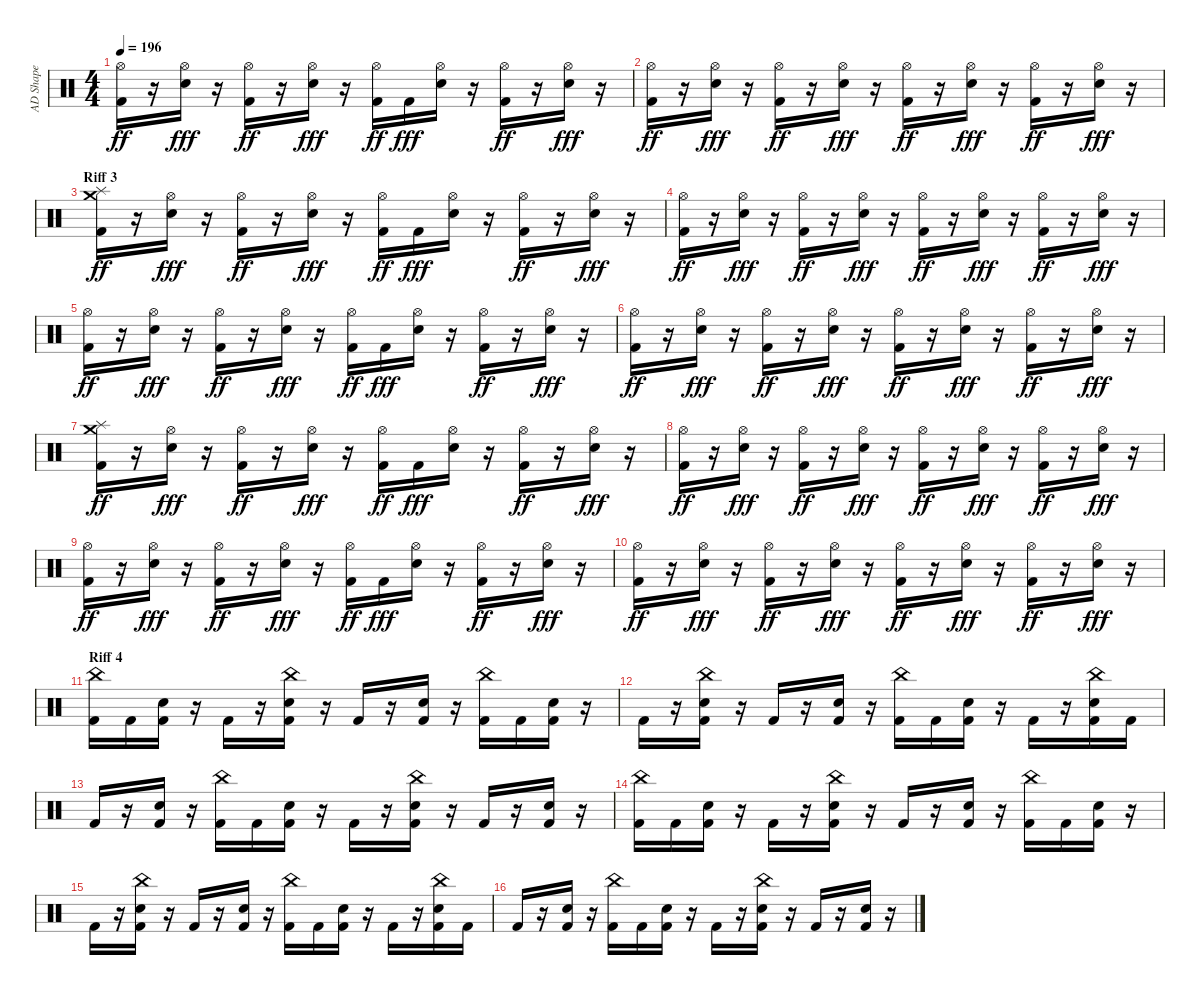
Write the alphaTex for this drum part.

\track ("AD Shape" "AD Shape") {instrument percussion}
\staff {score}
\articulation defaults
\ts (4 4)
\tempo 196
\clef neutral
\ks c
("Kick (hit) 2" "Hi-Hat (open)").16{dy ff} r.16 ("Snare (hit) 2" "Hi-Hat (open)").16{dy fff} r.16 ("Kick (hit) 2" "Hi-Hat (open)").16{dy ff} r.16 ("Snare (hit) 2" "Hi-Hat (open)").16{dy fff} r.16 ("Kick (hit) 2" "Hi-Hat (open)").16{dy ff} "Kick (hit) 2".16{dy fff} ("Snare (hit) 2" "Hi-Hat (open)").16 r.16 ("Kick (hit) 2" "Hi-Hat (open)").16{dy ff} r.16 ("Snare (hit) 2" "Hi-Hat (open)").16{dy fff} r.16 |
("Kick (hit) 2" "Hi-Hat (open)").16{dy ff} r.16 ("Snare (hit) 2" "Hi-Hat (open)").16{dy fff} r.16 ("Kick (hit) 2" "Hi-Hat (open)").16{dy ff} r.16 ("Snare (hit) 2" "Hi-Hat (open)").16{dy fff} r.16 ("Kick (hit) 2" "Hi-Hat (open)").16{dy ff} r.16 ("Snare (hit) 2" "Hi-Hat (open)").16{dy fff} r.16 ("Kick (hit) 2" "Hi-Hat (open)").16{dy ff} r.16 ("Snare (hit) 2" "Hi-Hat (open)").16{dy fff} r.16 |
\section ("" "Riff 3")
("Kick (hit) 2" "Splash (hit)" "Crash medium (hit)").16{dy ff} r.16 ("Snare (hit) 2" "Hi-Hat (open)").16{dy fff} r.16 ("Kick (hit) 2" "Hi-Hat (open)").16{dy ff} r.16 ("Snare (hit) 2" "Hi-Hat (open)").16{dy fff} r.16 ("Kick (hit) 2" "Hi-Hat (open)").16{dy ff} "Kick (hit) 2".16{dy fff} ("Snare (hit) 2" "Hi-Hat (open)").16 r.16 ("Kick (hit) 2" "Hi-Hat (open)").16{dy ff} r.16 ("Snare (hit) 2" "Hi-Hat (open)").16{dy fff} r.16 |
("Kick (hit) 2" "Hi-Hat (open)").16{dy ff} r.16 ("Snare (hit) 2" "Hi-Hat (open)").16{dy fff} r.16 ("Kick (hit) 2" "Hi-Hat (open)").16{dy ff} r.16 ("Snare (hit) 2" "Hi-Hat (open)").16{dy fff} r.16 ("Kick (hit) 2" "Hi-Hat (open)").16{dy ff} r.16 ("Snare (hit) 2" "Hi-Hat (open)").16{dy fff} r.16 ("Kick (hit) 2" "Hi-Hat (open)").16{dy ff} r.16 ("Snare (hit) 2" "Hi-Hat (open)").16{dy fff} r.16 |
("Kick (hit) 2" "Hi-Hat (open)").16{dy ff} r.16 ("Snare (hit) 2" "Hi-Hat (open)").16{dy fff} r.16 ("Kick (hit) 2" "Hi-Hat (open)").16{dy ff} r.16 ("Snare (hit) 2" "Hi-Hat (open)").16{dy fff} r.16 ("Kick (hit) 2" "Hi-Hat (open)").16{dy ff} "Kick (hit) 2".16{dy fff} ("Snare (hit) 2" "Hi-Hat (open)").16 r.16 ("Kick (hit) 2" "Hi-Hat (open)").16{dy ff} r.16 ("Snare (hit) 2" "Hi-Hat (open)").16{dy fff} r.16 |
("Kick (hit) 2" "Hi-Hat (open)").16{dy ff} r.16 ("Snare (hit) 2" "Hi-Hat (open)").16{dy fff} r.16 ("Kick (hit) 2" "Hi-Hat (open)").16{dy ff} r.16 ("Snare (hit) 2" "Hi-Hat (open)").16{dy fff} r.16 ("Kick (hit) 2" "Hi-Hat (open)").16{dy ff} r.16 ("Snare (hit) 2" "Hi-Hat (open)").16{dy fff} r.16 ("Kick (hit) 2" "Hi-Hat (open)").16{dy ff} r.16 ("Snare (hit) 2" "Hi-Hat (open)").16{dy fff} r.16 |
("Kick (hit) 2" "Splash (hit)" "Crash medium (hit)").16{dy ff} r.16 ("Snare (hit) 2" "Hi-Hat (open)").16{dy fff} r.16 ("Kick (hit) 2" "Hi-Hat (open)").16{dy ff} r.16 ("Snare (hit) 2" "Hi-Hat (open)").16{dy fff} r.16 ("Kick (hit) 2" "Hi-Hat (open)").16{dy ff} "Kick (hit) 2".16{dy fff} ("Snare (hit) 2" "Hi-Hat (open)").16 r.16 ("Kick (hit) 2" "Hi-Hat (open)").16{dy ff} r.16 ("Snare (hit) 2" "Hi-Hat (open)").16{dy fff} r.16 |
("Kick (hit) 2" "Hi-Hat (open)").16{dy ff} r.16 ("Snare (hit) 2" "Hi-Hat (open)").16{dy fff} r.16 ("Kick (hit) 2" "Hi-Hat (open)").16{dy ff} r.16 ("Snare (hit) 2" "Hi-Hat (open)").16{dy fff} r.16 ("Kick (hit) 2" "Hi-Hat (open)").16{dy ff} r.16 ("Snare (hit) 2" "Hi-Hat (open)").16{dy fff} r.16 ("Kick (hit) 2" "Hi-Hat (open)").16{dy ff} r.16 ("Snare (hit) 2" "Hi-Hat (open)").16{dy fff} r.16 |
("Kick (hit) 2" "Hi-Hat (open)").16{dy ff} r.16 ("Snare (hit) 2" "Hi-Hat (open)").16{dy fff} r.16 ("Kick (hit) 2" "Hi-Hat (open)").16{dy ff} r.16 ("Snare (hit) 2" "Hi-Hat (open)").16{dy fff} r.16 ("Kick (hit) 2" "Hi-Hat (open)").16{dy ff} "Kick (hit) 2".16{dy fff} ("Snare (hit) 2" "Hi-Hat (open)").16 r.16 ("Kick (hit) 2" "Hi-Hat (open)").16{dy ff} r.16 ("Snare (hit) 2" "Hi-Hat (open)").16{dy fff} r.16 |
("Kick (hit) 2" "Hi-Hat (open)").16{dy ff} r.16 ("Snare (hit) 2" "Hi-Hat (open)").16{dy fff} r.16 ("Kick (hit) 2" "Hi-Hat (open)").16{dy ff} r.16 ("Snare (hit) 2" "Hi-Hat (open)").16{dy fff} r.16 ("Kick (hit) 2" "Hi-Hat (open)").16{dy ff} r.16 ("Snare (hit) 2" "Hi-Hat (open)").16{dy fff} r.16 ("Kick (hit) 2" "Hi-Hat (open)").16{dy ff} r.16 ("Snare (hit) 2" "Hi-Hat (open)").16{dy fff} r.16 |
\section ("" "Riff 4")
("Kick (hit) 2" "China (hit)").16 "Kick (hit) 2".16 ("Kick (hit) 2" "Snare (hit) 2").16 r.16 "Kick (hit) 2".16 r.16 ("Kick (hit) 2" "Snare (hit) 2" "China (hit)").16 r.16 "Kick (hit) 2".16 r.16 ("Kick (hit) 2" "Snare (hit) 2").16 r.16 ("Kick (hit) 2" "China (hit)").16 "Kick (hit) 2".16 ("Kick (hit) 2" "Snare (hit) 2").16 r.16 |
"Kick (hit) 2".16 r.16 ("Kick (hit) 2" "Snare (hit) 2" "China (hit)").16 r.16 "Kick (hit) 2".16 r.16 ("Kick (hit) 2" "Snare (hit) 2").16 r.16 ("Kick (hit) 2" "China (hit)").16 "Kick (hit) 2".16 ("Kick (hit) 2" "Snare (hit) 2").16 r.16 "Kick (hit) 2".16 r.16 ("Kick (hit) 2" "Snare (hit) 2" "China (hit)").16 "Kick (hit) 2".16 |
"Kick (hit) 2".16 r.16 ("Kick (hit) 2" "Snare (hit) 2").16 r.16 ("Kick (hit) 2" "China (hit)").16 "Kick (hit) 2".16 ("Kick (hit) 2" "Snare (hit) 2").16 r.16 "Kick (hit) 2".16 r.16 ("Kick (hit) 2" "Snare (hit) 2" "China (hit)").16 r.16 "Kick (hit) 2".16 r.16 ("Kick (hit) 2" "Snare (hit) 2").16 r.16 |
("Kick (hit) 2" "China (hit)").16 "Kick (hit) 2".16 ("Kick (hit) 2" "Snare (hit) 2").16 r.16 "Kick (hit) 2".16 r.16 ("Kick (hit) 2" "Snare (hit) 2" "China (hit)").16 r.16 "Kick (hit) 2".16 r.16 ("Kick (hit) 2" "Snare (hit) 2").16 r.16 ("Kick (hit) 2" "China (hit)").16 "Kick (hit) 2".16 ("Kick (hit) 2" "Snare (hit) 2").16 r.16 |
"Kick (hit) 2".16 r.16 ("Kick (hit) 2" "Snare (hit) 2" "China (hit)").16 r.16 "Kick (hit) 2".16 r.16 ("Kick (hit) 2" "Snare (hit) 2").16 r.16 ("Kick (hit) 2" "China (hit)").16 "Kick (hit) 2".16 ("Kick (hit) 2" "Snare (hit) 2").16 r.16 "Kick (hit) 2".16 r.16 ("Kick (hit) 2" "Snare (hit) 2" "China (hit)").16 "Kick (hit) 2".16 |
"Kick (hit) 2".16 r.16 ("Kick (hit) 2" "Snare (hit) 2").16 r.16 ("Kick (hit) 2" "China (hit)").16 "Kick (hit) 2".16 ("Kick (hit) 2" "Snare (hit) 2").16 r.16 "Kick (hit) 2".16 r.16 ("Kick (hit) 2" "Snare (hit) 2" "China (hit)").16 r.16 "Kick (hit) 2".16 r.16 ("Kick (hit) 2" "Snare (hit) 2").16 r.16
